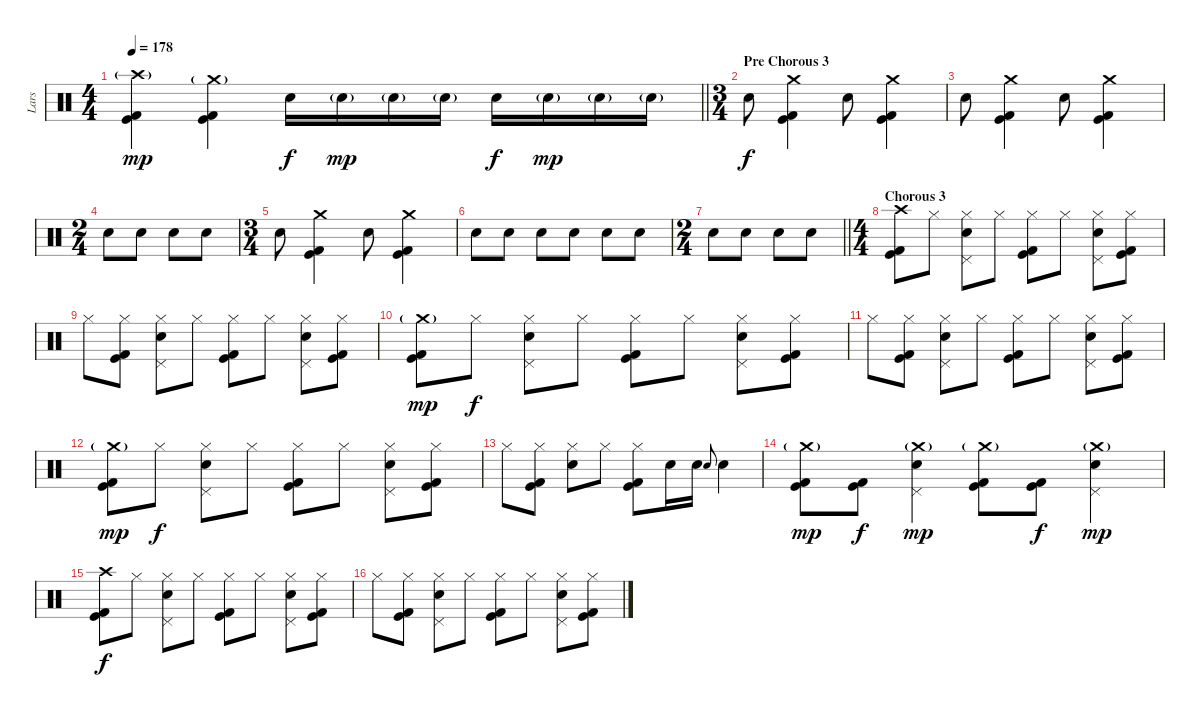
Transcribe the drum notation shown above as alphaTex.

\track ("Lars" "Lars") {instrument percussion}
\staff {score}
\articulation defaults
\ts (4 4)
\tempo 178
\clef neutral
\barLineRight lightlight
\ks c
("Crash high (hit)"{g} "Kick (hit)" "Kick (hit) 2").4{dy mp} ("Crash medium (hit)"{g} "Kick (hit)" "Kick (hit) 2").4 "Electric Snare (hit)".16{dy f} "Electric Snare (hit)"{g}.16{dy mp} "Electric Snare (hit)"{g}.16 "Electric Snare (hit)"{g}.16 "Electric Snare (hit)".16{dy f} "Electric Snare (hit)"{g}.16{dy mp} "Electric Snare (hit)"{g}.16 "Electric Snare (hit)"{g}.16 |
\ts (3 4)
\section ("" "Pre Chorous 3")
"Electric Snare (hit)".8{dy f} ("Crash medium (hit)" "Kick (hit)" "Kick (hit) 2").4 "Electric Snare (hit)".8 ("Crash medium (hit)" "Kick (hit)" "Kick (hit) 2").4 |
"Electric Snare (hit)".8 ("Crash medium (hit)" "Kick (hit)" "Kick (hit) 2").4 "Electric Snare (hit)".8 ("Crash medium (hit)" "Kick (hit)" "Kick (hit) 2").4 |
\ts (2 4)
"Electric Snare (hit)".8 "Electric Snare (hit)".8 "Electric Snare (hit)".8 "Electric Snare (hit)".8 |
\ts (3 4)
"Electric Snare (hit)".8 ("Crash medium (hit)" "Kick (hit)" "Kick (hit) 2").4 "Electric Snare (hit)".8 ("Crash medium (hit)" "Kick (hit)" "Kick (hit) 2").4 |
"Electric Snare (hit)".8 "Electric Snare (hit)".8 "Electric Snare (hit)".8 "Electric Snare (hit)".8 "Electric Snare (hit)".8 "Electric Snare (hit)".8 |
\ts (2 4)
\barLineRight lightlight "Electric Snare (hit)".8 "Electric Snare (hit)".8 "Electric Snare (hit)".8 "Electric Snare (hit)".8
|
\ts (4 4)
\section ("" "Chorous 3")
("Crash high (hit)" "Kick (hit)" "Kick (hit) 2").8 "Hi-Hat (closed)".8 ("Hi-Hat (closed)" "Pedal Hi-Hat (hit)" "Electric Snare (hit)").8 "Hi-Hat (closed)".8 ("Hi-Hat (closed)" "Kick (hit)" "Kick (hit) 2").8 "Hi-Hat (closed)".8 ("Hi-Hat (closed)" "Pedal Hi-Hat (hit)" "Electric Snare (hit)").8 ("Hi-Hat (closed)" "Kick (hit)" "Kick (hit) 2").8 |
"Hi-Hat (closed)".8 ("Hi-Hat (closed)" "Kick (hit)" "Kick (hit) 2").8 ("Hi-Hat (closed)" "Pedal Hi-Hat (hit)" "Electric Snare (hit)").8 "Hi-Hat (closed)".8 ("Hi-Hat (closed)" "Kick (hit)" "Kick (hit) 2").8 "Hi-Hat (closed)".8 ("Hi-Hat (closed)" "Pedal Hi-Hat (hit)" "Electric Snare (hit)").8 ("Hi-Hat (closed)" "Kick (hit)" "Kick (hit) 2").8 |
("Crash medium (hit)"{g} "Kick (hit)" "Kick (hit) 2").8{dy mp} "Hi-Hat (closed)".8{dy f} ("Hi-Hat (closed)" "Pedal Hi-Hat (hit)" "Electric Snare (hit)").8 "Hi-Hat (closed)".8 ("Hi-Hat (closed)" "Kick (hit)" "Kick (hit) 2").8 "Hi-Hat (closed)".8 ("Hi-Hat (closed)" "Pedal Hi-Hat (hit)" "Electric Snare (hit)").8 ("Hi-Hat (closed)" "Kick (hit)" "Kick (hit) 2").8 |
"Hi-Hat (closed)".8 ("Hi-Hat (closed)" "Kick (hit)" "Kick (hit) 2").8 ("Hi-Hat (closed)" "Pedal Hi-Hat (hit)" "Electric Snare (hit)").8 "Hi-Hat (closed)".8 ("Hi-Hat (closed)" "Kick (hit)" "Kick (hit) 2").8 "Hi-Hat (closed)".8 ("Hi-Hat (closed)" "Pedal Hi-Hat (hit)" "Electric Snare (hit)").8 ("Hi-Hat (closed)" "Kick (hit)" "Kick (hit) 2").8 |
("Crash medium (hit)"{g} "Kick (hit)" "Kick (hit) 2").8{dy mp} "Hi-Hat (closed)".8{dy f} ("Hi-Hat (closed)" "Pedal Hi-Hat (hit)" "Electric Snare (hit)").8 "Hi-Hat (closed)".8 ("Hi-Hat (closed)" "Kick (hit)" "Kick (hit) 2").8 "Hi-Hat (closed)".8 ("Hi-Hat (closed)" "Pedal Hi-Hat (hit)" "Electric Snare (hit)").8 ("Hi-Hat (closed)" "Kick (hit)" "Kick (hit) 2").8 |
"Hi-Hat (closed)".8 ("Hi-Hat (closed)" "Kick (hit)" "Kick (hit) 2").8 ("Hi-Hat (closed)" "Electric Snare (hit)").8 "Hi-Hat (closed)".8 ("Hi-Hat (closed)" "Kick (hit)" "Kick (hit) 2").8 "Electric Snare (hit)".16 "Electric Snare (hit)".16 "Electric Snare (hit)".8{gr onbeat} "Electric Snare (hit)".4 |
("Crash medium (hit)"{g} "Kick (hit)" "Kick (hit) 2").8{dy mp} ("Kick (hit)" "Kick (hit) 2").8{dy f} ("Crash medium (hit)"{g} "Pedal Hi-Hat (hit)" "Electric Snare (hit)").4{dy mp} ("Crash medium (hit)"{g} "Kick (hit)" "Kick (hit) 2").8 ("Kick (hit)" "Kick (hit) 2").8{dy f} ("Crash medium (hit)"{g} "Pedal Hi-Hat (hit)" "Electric Snare (hit)").4{dy mp} |
("Crash high (hit)" "Kick (hit)" "Kick (hit) 2").8{dy f} "Hi-Hat (closed)".8 ("Hi-Hat (closed)" "Pedal Hi-Hat (hit)" "Electric Snare (hit)").8 "Hi-Hat (closed)".8 ("Hi-Hat (closed)" "Kick (hit)" "Kick (hit) 2").8 "Hi-Hat (closed)".8 ("Hi-Hat (closed)" "Pedal Hi-Hat (hit)" "Electric Snare (hit)").8 ("Hi-Hat (closed)" "Kick (hit)" "Kick (hit) 2").8 |
"Hi-Hat (closed)".8 ("Hi-Hat (closed)" "Kick (hit)" "Kick (hit) 2").8 ("Hi-Hat (closed)" "Pedal Hi-Hat (hit)" "Electric Snare (hit)").8 "Hi-Hat (closed)".8 ("Hi-Hat (closed)" "Kick (hit)" "Kick (hit) 2").8 "Hi-Hat (closed)".8 ("Hi-Hat (closed)" "Pedal Hi-Hat (hit)" "Electric Snare (hit)").8 ("Hi-Hat (closed)" "Kick (hit)" "Kick (hit) 2").8
